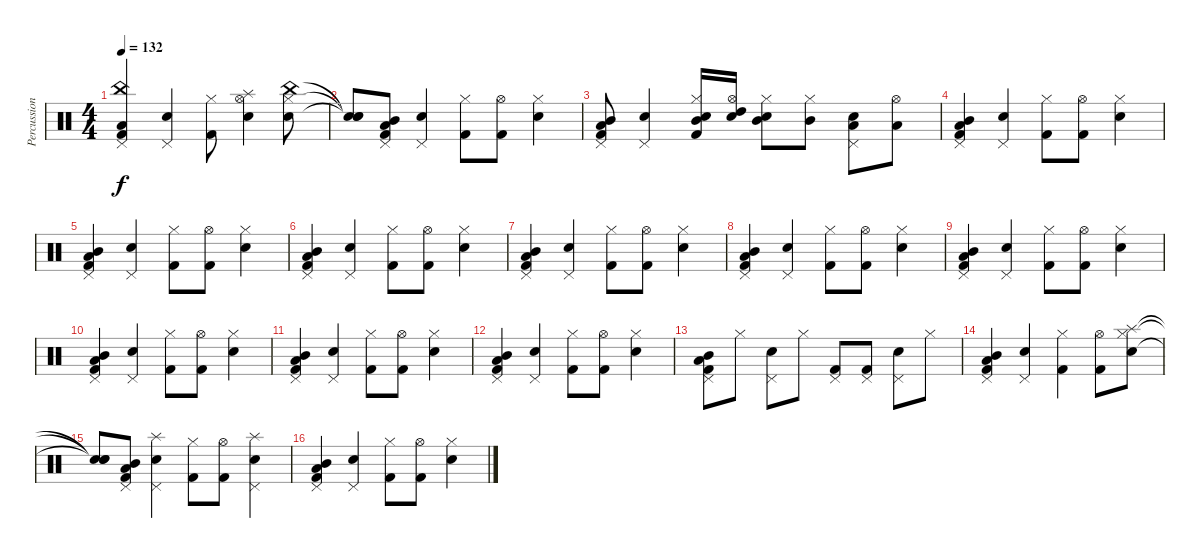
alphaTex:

\track ("Percussions" "Percussion") {instrument percussion}
\staff {score}
\articulation defaults
\ts (4 4)
\tempo 132
\clef neutral
\ks c
("Pedal Hi-Hat (hit)" "China (hit)" "Low Tom (hit)" "Kick (hit) 2").4{dy f} ("Pedal Hi-Hat (hit)" "Snare (hit) 2").4 ("Hi-Hat (closed)" "Kick (hit) 2").8 ("Hi-Hat (open)" "Splash (hit)" "Snare (hit) 2").4 ("Hi-Hat (closed)" "China (hit)" "Snare (hit) 2").8 |
("Snare (hit)"{t} "Snare (hit)"{t} "Snare (hit)"{t}).8 ("Pedal Hi-Hat (hit)" "Mid Tom (hit)" "Low Tom (hit)" "Kick (hit) 2").8 ("Pedal Hi-Hat (hit)" "Snare (hit) 2").4 ("Hi-Hat (closed)" "Kick (hit) 2").8 ("Hi-Hat (open)" "Kick (hit) 2").8 ("Hi-Hat (closed)" "Snare (hit) 2").4 |
("Pedal Hi-Hat (hit)" "Mid Tom (hit)" "Low Tom (hit)" "Kick (hit) 2").8 ("Pedal Hi-Hat (hit)" "Snare (hit) 2").4 ("Hi-Hat (closed)" "Mid Tom (hit)" "Snare (hit) 2" "Kick (hit) 2").16 ("Hi-Hat (open)" "High Tom (hit)" "Snare (hit) 2").16 ("Hi-Hat (closed)" "Mid Tom (hit)" "Snare (hit) 2").8 ("Hi-Hat (closed)" "Mid Tom (hit)").8 ("Pedal Hi-Hat (hit)" "Low Tom (hit)" "Snare (hit) 2").8 ("Hi-Hat (open)" "Low Tom (hit)").8 |
("Pedal Hi-Hat (hit)" "Mid Tom (hit)" "Low Tom (hit)" "Kick (hit) 2").4 ("Pedal Hi-Hat (hit)" "Snare (hit) 2").4 ("Hi-Hat (closed)" "Kick (hit) 2").8 ("Hi-Hat (open)" "Kick (hit) 2").8 ("Hi-Hat (closed)" "Snare (hit) 2").4 |
("Pedal Hi-Hat (hit)" "Mid Tom (hit)" "Low Tom (hit)" "Kick (hit) 2").4 ("Pedal Hi-Hat (hit)" "Snare (hit) 2").4 ("Hi-Hat (closed)" "Kick (hit) 2").8 ("Hi-Hat (open)" "Kick (hit) 2").8 ("Hi-Hat (closed)" "Snare (hit) 2").4 |
("Pedal Hi-Hat (hit)" "Mid Tom (hit)" "Low Tom (hit)" "Kick (hit) 2").4 ("Pedal Hi-Hat (hit)" "Snare (hit) 2").4 ("Hi-Hat (closed)" "Kick (hit) 2").8 ("Hi-Hat (open)" "Kick (hit) 2").8 ("Hi-Hat (closed)" "Snare (hit) 2").4 |
("Pedal Hi-Hat (hit)" "Mid Tom (hit)" "Low Tom (hit)" "Kick (hit) 2").4 ("Pedal Hi-Hat (hit)" "Snare (hit) 2").4 ("Hi-Hat (closed)" "Kick (hit) 2").8 ("Hi-Hat (open)" "Kick (hit) 2").8 ("Hi-Hat (closed)" "Snare (hit) 2").4 |
("Pedal Hi-Hat (hit)" "Mid Tom (hit)" "Low Tom (hit)" "Kick (hit) 2").4 ("Pedal Hi-Hat (hit)" "Snare (hit) 2").4 ("Hi-Hat (closed)" "Kick (hit) 2").8 ("Hi-Hat (open)" "Kick (hit) 2").8 ("Hi-Hat (closed)" "Snare (hit) 2").4 |
("Pedal Hi-Hat (hit)" "Mid Tom (hit)" "Low Tom (hit)" "Kick (hit) 2").4 ("Pedal Hi-Hat (hit)" "Snare (hit) 2").4 ("Hi-Hat (closed)" "Kick (hit) 2").8 ("Hi-Hat (open)" "Kick (hit) 2").8 ("Hi-Hat (closed)" "Snare (hit) 2").4 |
("Pedal Hi-Hat (hit)" "Mid Tom (hit)" "Low Tom (hit)" "Kick (hit) 2").4 ("Pedal Hi-Hat (hit)" "Snare (hit) 2").4 ("Hi-Hat (closed)" "Kick (hit) 2").8 ("Hi-Hat (open)" "Kick (hit) 2").8 ("Hi-Hat (closed)" "Snare (hit) 2").4 |
("Pedal Hi-Hat (hit)" "Mid Tom (hit)" "Low Tom (hit)" "Kick (hit) 2").4 ("Pedal Hi-Hat (hit)" "Snare (hit) 2").4 ("Hi-Hat (closed)" "Kick (hit) 2").8 ("Hi-Hat (open)" "Kick (hit) 2").8 ("Hi-Hat (closed)" "Snare (hit) 2").4 |
("Pedal Hi-Hat (hit)" "Mid Tom (hit)" "Low Tom (hit)" "Kick (hit) 2").4 ("Pedal Hi-Hat (hit)" "Snare (hit) 2").4 ("Hi-Hat (closed)" "Kick (hit) 2").8 ("Hi-Hat (open)" "Kick (hit) 2").8 ("Hi-Hat (closed)" "Snare (hit) 2").4 |
("Pedal Hi-Hat (hit)" "Mid Tom (hit)" "Low Tom (hit)" "Kick (hit) 2").8 "Hi-Hat (closed)".8 ("Pedal Hi-Hat (hit)" "Snare (hit) 2").8 "Hi-Hat (closed)".8 ("Pedal Hi-Hat (hit)" "Kick (hit) 2").8 ("Pedal Hi-Hat (hit)" "Kick (hit) 2").8 ("Pedal Hi-Hat (hit)" "Snare (hit) 2").8 "Hi-Hat (closed)".8 |
("Pedal Hi-Hat (hit)" "Mid Tom (hit)" "Low Tom (hit)" "Kick (hit) 2").4 ("Pedal Hi-Hat (hit)" "Snare (hit) 2").4 ("Hi-Hat (closed)" "Kick (hit) 2").4 ("Hi-Hat (open)" "Kick (hit) 2").8 ("Hi-Hat (closed)" "Splash (hit)" "Snare (hit) 2").8 |
("Snare (hit)"{t} "Snare (hit)"{t} "Snare (hit)"{t}).8 ("Pedal Hi-Hat (hit)" "Mid Tom (hit)" "Low Tom (hit)" "Kick (hit) 2").8 ("Pedal Hi-Hat (hit)" "Splash (hit)" "Snare (hit) 2").4 ("Hi-Hat (closed)" "Kick (hit) 2").8 ("Hi-Hat (open)" "Kick (hit) 2").8 ("Pedal Hi-Hat (hit)" "Splash (hit)" "Snare (hit) 2").4 |
("Pedal Hi-Hat (hit)" "Mid Tom (hit)" "Low Tom (hit)" "Kick (hit) 2").4 ("Pedal Hi-Hat (hit)" "Snare (hit) 2").4 ("Hi-Hat (closed)" "Kick (hit) 2").8 ("Hi-Hat (open)" "Kick (hit) 2").8 ("Hi-Hat (closed)" "Snare (hit) 2").4
